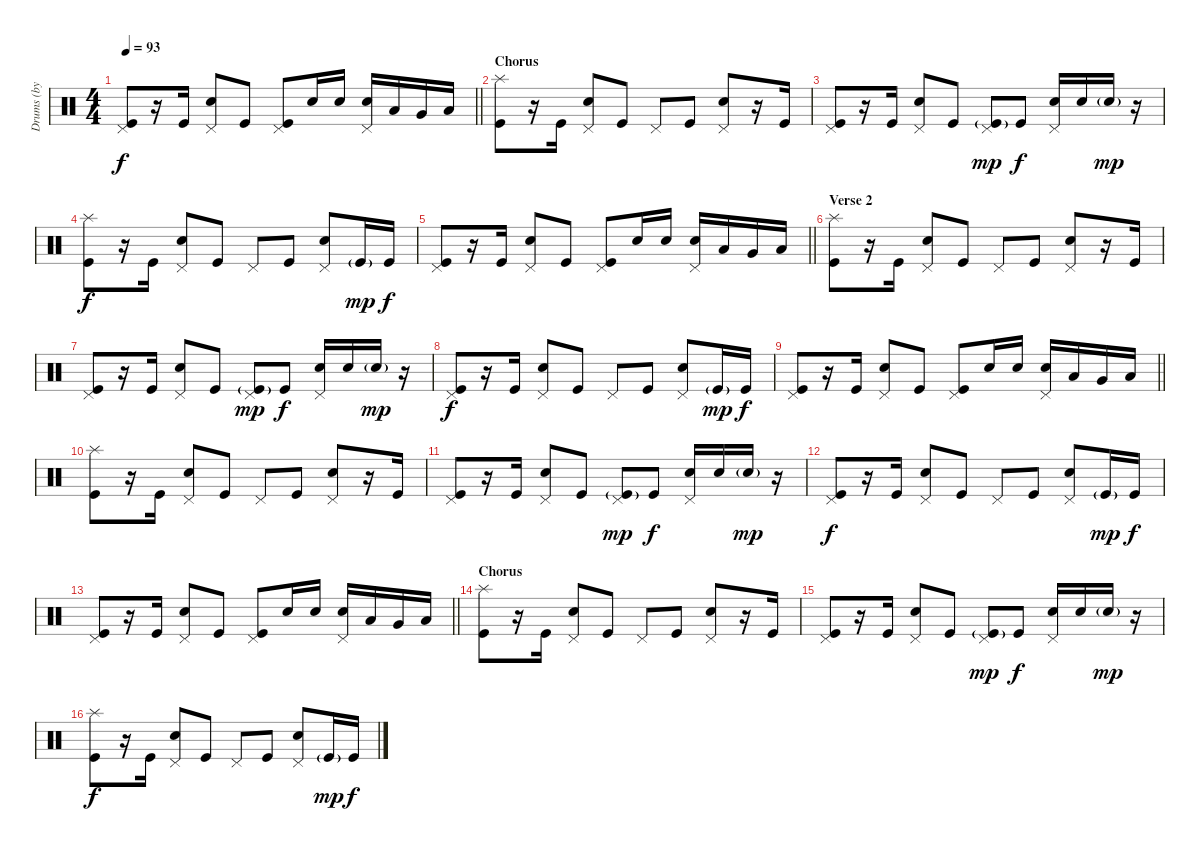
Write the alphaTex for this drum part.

\track ("Drums (by maxor)" "Drums (by ") {instrument percussion}
\staff {score}
\articulation defaults
\ts (4 4)
\tempo 93
\clef neutral
\barLineRight lightlight
\ks c
("Pedal Hi-Hat (hit)" "Kick (hit)").8{dy f} r.16 "Kick (hit)".16 ("Pedal Hi-Hat (hit)" "Electric Snare (hit)").8 "Kick (hit)".8 ("Pedal Hi-Hat (hit)" "Kick (hit)").8 "Electric Snare (hit)".16 "Electric Snare (hit)".16 ("Pedal Hi-Hat (hit)" "Electric Snare (hit)").16 "Low Tom (hit)".16 "Very Low Tom (hit)".16 "Low Tom (hit)".16 |
\section ("" "Chorus")
("Splash (hit)" "Kick (hit)").8 r.16 "Kick (hit)".16 ("Pedal Hi-Hat (hit)" "Electric Snare (hit)").8 "Kick (hit)".8 "Pedal Hi-Hat (hit)".8 "Kick (hit)".8 ("Pedal Hi-Hat (hit)" "Electric Snare (hit)").8 r.16 "Kick (hit)".16 |
("Pedal Hi-Hat (hit)" "Kick (hit)").8 r.16 "Kick (hit)".16 ("Pedal Hi-Hat (hit)" "Electric Snare (hit)").8 "Kick (hit)".8 ("Pedal Hi-Hat (hit)" "Kick (hit)"{g}).8{dy mp} "Kick (hit)".8{dy f} ("Pedal Hi-Hat (hit)" "Electric Snare (hit)").16 "Electric Snare (hit)".16 "Electric Snare (hit)"{g}.16{dy mp} r.16 |
("Splash (hit)" "Kick (hit)").8{dy f} r.16 "Kick (hit)".16 ("Pedal Hi-Hat (hit)" "Electric Snare (hit)").8 "Kick (hit)".8 "Pedal Hi-Hat (hit)".8 "Kick (hit)".8 ("Pedal Hi-Hat (hit)" "Electric Snare (hit)").8 "Kick (hit)"{g}.16{dy mp} "Kick (hit)".16{dy f} |
\barLineRight lightlight
("Pedal Hi-Hat (hit)" "Kick (hit)").8 r.16 "Kick (hit)".16 ("Pedal Hi-Hat (hit)" "Electric Snare (hit)").8 "Kick (hit)".8 ("Pedal Hi-Hat (hit)" "Kick (hit)").8 "Electric Snare (hit)".16 "Electric Snare (hit)".16 ("Pedal Hi-Hat (hit)" "Electric Snare (hit)").16 "Low Tom (hit)".16 "Very Low Tom (hit)".16 "Low Tom (hit)".16 |
\section ("" "Verse 2")
("Splash (hit)" "Kick (hit)").8 r.16 "Kick (hit)".16 ("Pedal Hi-Hat (hit)" "Electric Snare (hit)").8 "Kick (hit)".8 "Pedal Hi-Hat (hit)".8 "Kick (hit)".8 ("Pedal Hi-Hat (hit)" "Electric Snare (hit)").8 r.16 "Kick (hit)".16 |
("Pedal Hi-Hat (hit)" "Kick (hit)").8 r.16 "Kick (hit)".16 ("Pedal Hi-Hat (hit)" "Electric Snare (hit)").8 "Kick (hit)".8 ("Pedal Hi-Hat (hit)" "Kick (hit)"{g}).8{dy mp} "Kick (hit)".8{dy f} ("Pedal Hi-Hat (hit)" "Electric Snare (hit)").16 "Electric Snare (hit)".16 "Electric Snare (hit)"{g}.16{dy mp} r.16 |
("Pedal Hi-Hat (hit)" "Kick (hit)").8{dy f} r.16 "Kick (hit)".16 ("Pedal Hi-Hat (hit)" "Electric Snare (hit)").8 "Kick (hit)".8 "Pedal Hi-Hat (hit)".8 "Kick (hit)".8 ("Pedal Hi-Hat (hit)" "Electric Snare (hit)").8 "Kick (hit)"{g}.16{dy mp} "Kick (hit)".16{dy f} |
\barLineRight lightlight
("Pedal Hi-Hat (hit)" "Kick (hit)").8 r.16 "Kick (hit)".16 ("Pedal Hi-Hat (hit)" "Electric Snare (hit)").8 "Kick (hit)".8 ("Pedal Hi-Hat (hit)" "Kick (hit)").8 "Electric Snare (hit)".16 "Electric Snare (hit)".16 ("Pedal Hi-Hat (hit)" "Electric Snare (hit)").16 "Low Tom (hit)".16 "Very Low Tom (hit)".16 "Low Tom (hit)".16 |
("Splash (hit)" "Kick (hit)").8 r.16 "Kick (hit)".16 ("Pedal Hi-Hat (hit)" "Electric Snare (hit)").8 "Kick (hit)".8 "Pedal Hi-Hat (hit)".8 "Kick (hit)".8 ("Pedal Hi-Hat (hit)" "Electric Snare (hit)").8 r.16 "Kick (hit)".16 |
("Pedal Hi-Hat (hit)" "Kick (hit)").8 r.16 "Kick (hit)".16 ("Pedal Hi-Hat (hit)" "Electric Snare (hit)").8 "Kick (hit)".8 ("Pedal Hi-Hat (hit)" "Kick (hit)"{g}).8{dy mp} "Kick (hit)".8{dy f} ("Pedal Hi-Hat (hit)" "Electric Snare (hit)").16 "Electric Snare (hit)".16 "Electric Snare (hit)"{g}.16{dy mp} r.16 |
("Pedal Hi-Hat (hit)" "Kick (hit)").8{dy f} r.16 "Kick (hit)".16 ("Pedal Hi-Hat (hit)" "Electric Snare (hit)").8 "Kick (hit)".8 "Pedal Hi-Hat (hit)".8 "Kick (hit)".8 ("Pedal Hi-Hat (hit)" "Electric Snare (hit)").8 "Kick (hit)"{g}.16{dy mp} "Kick (hit)".16{dy f} |
\barLineRight lightlight
("Pedal Hi-Hat (hit)" "Kick (hit)").8 r.16 "Kick (hit)".16 ("Pedal Hi-Hat (hit)" "Electric Snare (hit)").8 "Kick (hit)".8 ("Pedal Hi-Hat (hit)" "Kick (hit)").8 "Electric Snare (hit)".16 "Electric Snare (hit)".16 ("Pedal Hi-Hat (hit)" "Electric Snare (hit)").16 "Low Tom (hit)".16 "Very Low Tom (hit)".16 "Low Tom (hit)".16 |
\section ("" "Chorus")
("Splash (hit)" "Kick (hit)").8 r.16 "Kick (hit)".16 ("Pedal Hi-Hat (hit)" "Electric Snare (hit)").8 "Kick (hit)".8 "Pedal Hi-Hat (hit)".8 "Kick (hit)".8 ("Pedal Hi-Hat (hit)" "Electric Snare (hit)").8 r.16 "Kick (hit)".16 |
("Pedal Hi-Hat (hit)" "Kick (hit)").8 r.16 "Kick (hit)".16 ("Pedal Hi-Hat (hit)" "Electric Snare (hit)").8 "Kick (hit)".8 ("Pedal Hi-Hat (hit)" "Kick (hit)"{g}).8{dy mp} "Kick (hit)".8{dy f} ("Pedal Hi-Hat (hit)" "Electric Snare (hit)").16 "Electric Snare (hit)".16 "Electric Snare (hit)"{g}.16{dy mp} r.16 |
("Splash (hit)" "Kick (hit)").8{dy f} r.16 "Kick (hit)".16 ("Pedal Hi-Hat (hit)" "Electric Snare (hit)").8 "Kick (hit)".8 "Pedal Hi-Hat (hit)".8 "Kick (hit)".8 ("Pedal Hi-Hat (hit)" "Electric Snare (hit)").8 "Kick (hit)"{g}.16{dy mp} "Kick (hit)".16{dy f}
